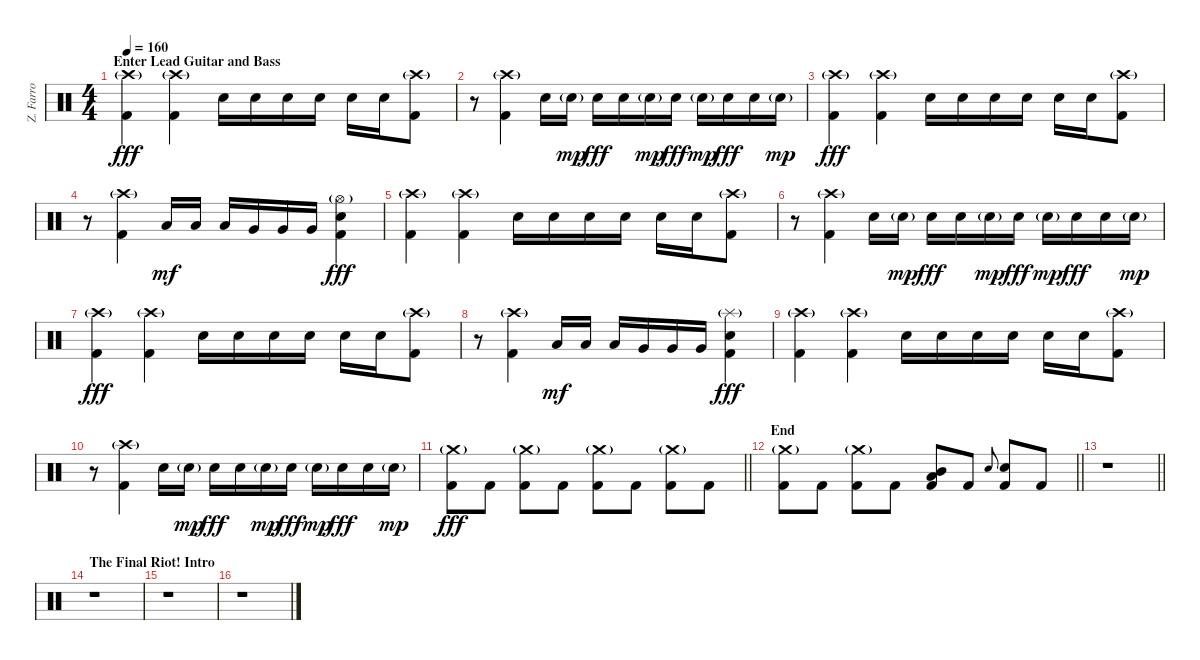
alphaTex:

\track ("Z. Farro" "Z. Farro") {instrument percussion}
\staff {score}
\articulation defaults
\ts (4 4)
\section ("" "Enter Lead Guitar and Bass")
\tempo 160
\clef neutral
\ks c
("Crash high (hit)"{g} "Kick (hit) 2").4{dy fff} ("Crash high (hit)"{g} "Kick (hit) 2").4 "Electric Snare (hit)".16 "Electric Snare (hit)".16 "Electric Snare (hit)".16 "Electric Snare (hit)".16 "Electric Snare (hit)".16 "Electric Snare (hit)".16 ("Crash high (hit)"{g} "Kick (hit) 2").8 |
r.8 ("Crash high (hit)"{g} "Kick (hit) 2").4 "Electric Snare (hit)".16 "Electric Snare (hit)"{g}.16{dy mp} "Electric Snare (hit)".16{dy fff} "Electric Snare (hit)".16 "Electric Snare (hit)"{g}.16{dy mp} "Electric Snare (hit)".16{dy fff} "Electric Snare (hit)"{g}.16{dy mp} "Electric Snare (hit)".16{dy fff} "Electric Snare (hit)".16 "Electric Snare (hit)"{g}.16{dy mp} |
("Crash high (hit)"{g} "Kick (hit) 2").4{dy fff} ("Crash high (hit)"{g} "Kick (hit) 2").4 "Electric Snare (hit)".16 "Electric Snare (hit)".16 "Electric Snare (hit)".16 "Electric Snare (hit)".16 "Electric Snare (hit)".16 "Electric Snare (hit)".16 ("Crash high (hit)"{g} "Kick (hit) 2").8 |
r.8 ("Crash high (hit)"{g} "Kick (hit) 2").4 "Low Tom (hit)".16{dy mf} "Low Tom (hit)".16 "Low Tom (hit)".16 "Very Low Tom (hit)".16 "Very Low Tom (hit)".16 "Very Low Tom (hit)".16 ("Hi-Hat (open)"{g} "Electric Snare (hit)" "Kick (hit) 2").4{dy fff} |
("Crash high (hit)"{g} "Kick (hit) 2").4 ("Crash high (hit)"{g} "Kick (hit) 2").4 "Electric Snare (hit)".16 "Electric Snare (hit)".16 "Electric Snare (hit)".16 "Electric Snare (hit)".16 "Electric Snare (hit)".16 "Electric Snare (hit)".16 ("Crash high (hit)"{g} "Kick (hit) 2").8 |
r.8 ("Crash high (hit)"{g} "Kick (hit) 2").4 "Electric Snare (hit)".16 "Electric Snare (hit)"{g}.16{dy mp} "Electric Snare (hit)".16{dy fff} "Electric Snare (hit)".16 "Electric Snare (hit)"{g}.16{dy mp} "Electric Snare (hit)".16{dy fff} "Electric Snare (hit)"{g}.16{dy mp} "Electric Snare (hit)".16{dy fff} "Electric Snare (hit)".16 "Electric Snare (hit)"{g}.16{dy mp} |
("Crash high (hit)"{g} "Kick (hit) 2").4{dy fff} ("Crash high (hit)"{g} "Kick (hit) 2").4 "Electric Snare (hit)".16 "Electric Snare (hit)".16 "Electric Snare (hit)".16 "Electric Snare (hit)".16 "Electric Snare (hit)".16 "Electric Snare (hit)".16 ("Crash high (hit)"{g} "Kick (hit) 2").8 |
r.8 ("Crash high (hit)"{g} "Kick (hit) 2").4 "Low Tom (hit)".16{dy mf} "Low Tom (hit)".16 "Low Tom (hit)".16 "Very Low Tom (hit)".16 "Very Low Tom (hit)".16 "Very Low Tom (hit)".16 ("Splash (hit)"{g} "Electric Snare (hit)" "Kick (hit) 2").4{dy fff} |
("Crash high (hit)"{g} "Kick (hit) 2").4 ("Crash high (hit)"{g} "Kick (hit) 2").4 "Electric Snare (hit)".16 "Electric Snare (hit)".16 "Electric Snare (hit)".16 "Electric Snare (hit)".16 "Electric Snare (hit)".16 "Electric Snare (hit)".16 ("Crash high (hit)"{g} "Kick (hit) 2").8 |
r.8 ("Crash high (hit)"{g} "Kick (hit) 2").4 "Electric Snare (hit)".16 "Electric Snare (hit)"{g}.16{dy mp} "Electric Snare (hit)".16{dy fff} "Electric Snare (hit)".16 "Electric Snare (hit)"{g}.16{dy mp} "Electric Snare (hit)".16{dy fff} "Electric Snare (hit)"{g}.16{dy mp} "Electric Snare (hit)".16{dy fff} "Electric Snare (hit)".16 "Electric Snare (hit)"{g}.16{dy mp} |
\barLineRight lightlight
("Crash medium (hit)"{g} "Kick (hit) 2").8{dy fff} "Kick (hit) 2".8 ("Crash medium (hit)"{g} "Kick (hit) 2").8 "Kick (hit) 2".8 ("Crash medium (hit)"{g} "Kick (hit) 2").8 "Kick (hit) 2".8 ("Crash medium (hit)"{g} "Kick (hit) 2").8 "Kick (hit) 2".8 |
\section ("" "End")
\barLineRight lightlight
("Crash medium (hit)"{g} "Kick (hit) 2").8 "Kick (hit) 2".8 ("Crash medium (hit)"{g} "Kick (hit) 2").8 "Kick (hit) 2".8 ("Mid Tom (hit)" "Low Tom (hit)" "Kick (hit) 2").8 "Kick (hit) 2".8 "Electric Snare (hit)".8{gr onbeat} ("Electric Snare (hit)" "Kick (hit) 2").8 "Kick (hit) 2".8 |
\barLineRight lightlight
r.1 |
\section ("" "The Final Riot! Intro")
r.1 |
r.1 |
r.1
